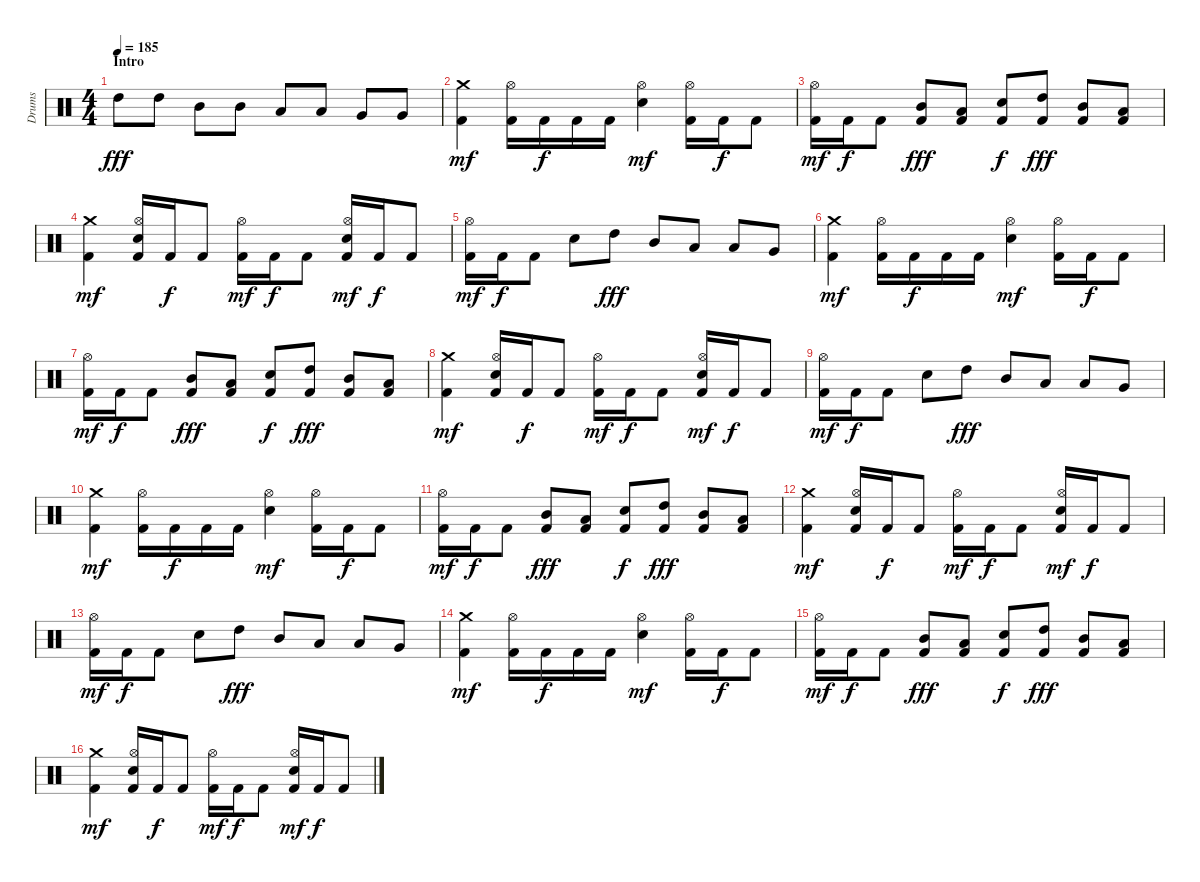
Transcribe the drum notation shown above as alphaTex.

\track ("Drums" "Drums") {instrument percussion}
\staff {score}
\articulation defaults
\ts (4 4)
\section ("" "Intro")
\tempo 185
\clef neutral
\ks c "High Tom (hit)".8{dy fff} "High Tom (hit)".8 "Mid Tom (hit)".8 "Mid Tom (hit)".8 "Low Tom (hit)".8 "Low Tom (hit)".8 "Very Low Tom (hit)".8 "Very Low Tom (hit)".8
|
("Crash medium (hit)" "Kick (hit) 2").4{dy mf} ("Hi-Hat (open)" "Kick (hit) 2").16 "Kick (hit) 2".16{dy f} "Kick (hit) 2".16 "Kick (hit) 2".16 ("Hi-Hat (open)" "Electric Snare (hit)").4{dy mf} ("Hi-Hat (open)" "Kick (hit) 2").16 "Kick (hit) 2".16{dy f} "Kick (hit) 2".8 |
("Hi-Hat (open)" "Kick (hit) 2").16{dy mf} "Kick (hit) 2".16{dy f} "Kick (hit) 2".8 ("Mid Tom (hit)" "Kick (hit) 2").8{dy fff} ("Low Tom (hit)" "Kick (hit) 2").8 ("Electric Snare (hit)" "Kick (hit) 2").8{dy f} ("High Tom (hit)" "Kick (hit) 2").8{dy fff} ("Mid Tom (hit)" "Kick (hit) 2").8 ("Low Tom (hit)" "Kick (hit) 2").8 |
("Crash medium (hit)" "Kick (hit) 2").4{dy mf} ("Hi-Hat (open)" "Electric Snare (hit)" "Kick (hit) 2").16 "Kick (hit) 2".16{dy f} "Kick (hit) 2".8 ("Hi-Hat (open)" "Kick (hit) 2").16{dy mf} "Kick (hit) 2".16{dy f} "Kick (hit) 2".8 ("Hi-Hat (open)" "Electric Snare (hit)" "Kick (hit) 2").16{dy mf} "Kick (hit) 2".16{dy f} "Kick (hit) 2".8 |
("Hi-Hat (open)" "Kick (hit) 2").16{dy mf} "Kick (hit) 2".16{dy f} "Kick (hit) 2".8 "Electric Snare (hit)".8 "High Tom (hit)".8{dy fff} "Mid Tom (hit)".8 "Low Tom (hit)".8 "Low Tom (hit)".8 "Very Low Tom (hit)".8 |
("Crash medium (hit)" "Kick (hit) 2").4{dy mf} ("Hi-Hat (open)" "Kick (hit) 2").16 "Kick (hit) 2".16{dy f} "Kick (hit) 2".16 "Kick (hit) 2".16 ("Hi-Hat (open)" "Electric Snare (hit)").4{dy mf} ("Hi-Hat (open)" "Kick (hit) 2").16 "Kick (hit) 2".16{dy f} "Kick (hit) 2".8 |
("Hi-Hat (open)" "Kick (hit) 2").16{dy mf} "Kick (hit) 2".16{dy f} "Kick (hit) 2".8 ("Mid Tom (hit)" "Kick (hit) 2").8{dy fff} ("Low Tom (hit)" "Kick (hit) 2").8 ("Electric Snare (hit)" "Kick (hit) 2").8{dy f} ("High Tom (hit)" "Kick (hit) 2").8{dy fff} ("Mid Tom (hit)" "Kick (hit) 2").8 ("Low Tom (hit)" "Kick (hit) 2").8 |
("Crash medium (hit)" "Kick (hit) 2").4{dy mf} ("Hi-Hat (open)" "Electric Snare (hit)" "Kick (hit) 2").16 "Kick (hit) 2".16{dy f} "Kick (hit) 2".8 ("Hi-Hat (open)" "Kick (hit) 2").16{dy mf} "Kick (hit) 2".16{dy f} "Kick (hit) 2".8 ("Hi-Hat (open)" "Electric Snare (hit)" "Kick (hit) 2").16{dy mf} "Kick (hit) 2".16{dy f} "Kick (hit) 2".8 |
("Hi-Hat (open)" "Kick (hit) 2").16{dy mf} "Kick (hit) 2".16{dy f} "Kick (hit) 2".8 "Electric Snare (hit)".8 "High Tom (hit)".8{dy fff} "Mid Tom (hit)".8 "Low Tom (hit)".8 "Low Tom (hit)".8 "Very Low Tom (hit)".8 |
("Crash medium (hit)" "Kick (hit) 2").4{dy mf} ("Hi-Hat (open)" "Kick (hit) 2").16 "Kick (hit) 2".16{dy f} "Kick (hit) 2".16 "Kick (hit) 2".16 ("Hi-Hat (open)" "Electric Snare (hit)").4{dy mf} ("Hi-Hat (open)" "Kick (hit) 2").16 "Kick (hit) 2".16{dy f} "Kick (hit) 2".8 |
("Hi-Hat (open)" "Kick (hit) 2").16{dy mf} "Kick (hit) 2".16{dy f} "Kick (hit) 2".8 ("Mid Tom (hit)" "Kick (hit) 2").8{dy fff} ("Low Tom (hit)" "Kick (hit) 2").8 ("Electric Snare (hit)" "Kick (hit) 2").8{dy f} ("High Tom (hit)" "Kick (hit) 2").8{dy fff} ("Mid Tom (hit)" "Kick (hit) 2").8 ("Low Tom (hit)" "Kick (hit) 2").8 |
("Crash medium (hit)" "Kick (hit) 2").4{dy mf} ("Hi-Hat (open)" "Electric Snare (hit)" "Kick (hit) 2").16 "Kick (hit) 2".16{dy f} "Kick (hit) 2".8 ("Hi-Hat (open)" "Kick (hit) 2").16{dy mf} "Kick (hit) 2".16{dy f} "Kick (hit) 2".8 ("Hi-Hat (open)" "Electric Snare (hit)" "Kick (hit) 2").16{dy mf} "Kick (hit) 2".16{dy f} "Kick (hit) 2".8 |
("Hi-Hat (open)" "Kick (hit) 2").16{dy mf} "Kick (hit) 2".16{dy f} "Kick (hit) 2".8 "Electric Snare (hit)".8 "High Tom (hit)".8{dy fff} "Mid Tom (hit)".8 "Low Tom (hit)".8 "Low Tom (hit)".8 "Very Low Tom (hit)".8 |
("Crash medium (hit)" "Kick (hit) 2").4{dy mf} ("Hi-Hat (open)" "Kick (hit) 2").16 "Kick (hit) 2".16{dy f} "Kick (hit) 2".16 "Kick (hit) 2".16 ("Hi-Hat (open)" "Electric Snare (hit)").4{dy mf} ("Hi-Hat (open)" "Kick (hit) 2").16 "Kick (hit) 2".16{dy f} "Kick (hit) 2".8 |
("Hi-Hat (open)" "Kick (hit) 2").16{dy mf} "Kick (hit) 2".16{dy f} "Kick (hit) 2".8 ("Mid Tom (hit)" "Kick (hit) 2").8{dy fff} ("Low Tom (hit)" "Kick (hit) 2").8 ("Electric Snare (hit)" "Kick (hit) 2").8{dy f} ("High Tom (hit)" "Kick (hit) 2").8{dy fff} ("Mid Tom (hit)" "Kick (hit) 2").8 ("Low Tom (hit)" "Kick (hit) 2").8 |
("Crash medium (hit)" "Kick (hit) 2").4{dy mf} ("Hi-Hat (open)" "Electric Snare (hit)" "Kick (hit) 2").16 "Kick (hit) 2".16{dy f} "Kick (hit) 2".8 ("Hi-Hat (open)" "Kick (hit) 2").16{dy mf} "Kick (hit) 2".16{dy f} "Kick (hit) 2".8 ("Hi-Hat (open)" "Electric Snare (hit)" "Kick (hit) 2").16{dy mf} "Kick (hit) 2".16{dy f} "Kick (hit) 2".8
